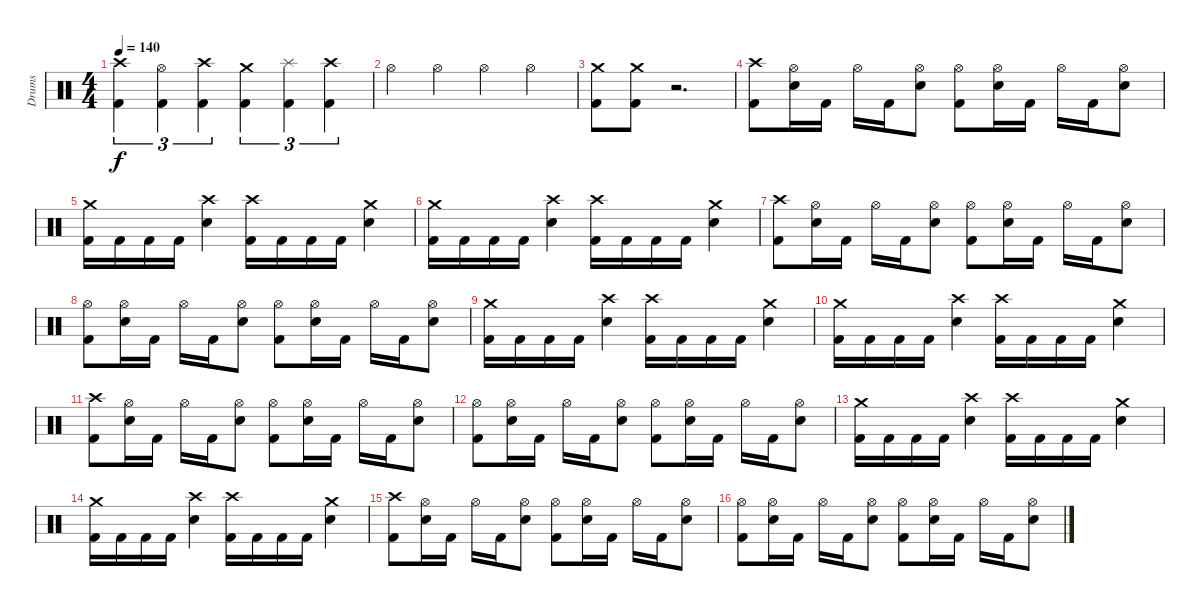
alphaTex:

\track ("Drums" "Drums") {instrument percussion}
\staff {score}
\articulation defaults
\ts (4 4)
\tempo 140
\clef neutral
\ks c
("Crash high (hit)" "Kick (hit) 2").4{tu (3 2) dy f} ("Hi-Hat (open)" "Kick (hit) 2").4{tu (3 2)} ("Crash high (hit)" "Kick (hit) 2").4{tu (3 2)} ("Crash medium (hit)" "Kick (hit) 2").4{tu (3 2)} ("Splash (hit)" "Kick (hit) 2").4{tu (3 2)} ("Crash high (hit)" "Kick (hit) 2").4{tu (3 2)} |
"Hi-Hat (open)".4 "Hi-Hat (open)".4 "Hi-Hat (open)".4 "Hi-Hat (open)".4 |
("Kick (hit) 2" "Crash medium (hit)").8 ("Kick (hit) 2" "Crash medium (hit)").8 r.2{d volume 0} |
("Crash high (hit)" "Kick (hit) 2").8{volume 10} ("Hi-Hat (open)" "Snare (hit) 2").16 "Kick (hit) 2".16 "Hi-Hat (open)".16 "Kick (hit) 2".16 ("Snare (hit) 2" "Hi-Hat (open)").8 ("Kick (hit) 2" "Hi-Hat (open)").8 ("Snare (hit) 2" "Hi-Hat (open)").16 "Kick (hit) 2".16 "Hi-Hat (open)".16 "Kick (hit) 2".16 ("Snare (hit) 2" "Hi-Hat (open)").8 |
("Kick (hit) 2" "Crash medium (hit)").16 "Kick (hit) 2".16 "Kick (hit) 2".16 "Kick (hit) 2".16 ("Crash high (hit)" "Snare (hit) 2").4 ("Kick (hit) 2" "Crash high (hit)").16 "Kick (hit) 2".16 "Kick (hit) 2".16 "Kick (hit) 2".16 ("Crash medium (hit)" "Snare (hit) 2").4 |
("Kick (hit) 2" "Crash medium (hit)").16 "Kick (hit) 2".16 "Kick (hit) 2".16 "Kick (hit) 2".16 ("Crash high (hit)" "Snare (hit) 2").4 ("Kick (hit) 2" "Crash high (hit)").16 "Kick (hit) 2".16 "Kick (hit) 2".16 "Kick (hit) 2".16 ("Crash medium (hit)" "Snare (hit) 2").4 |
("Kick (hit) 2" "Crash high (hit)").8 ("Snare (hit) 2" "Hi-Hat (open)").16 "Kick (hit) 2".16 "Hi-Hat (open)".16 "Kick (hit) 2".16 ("Hi-Hat (open)" "Snare (hit) 2").8 ("Hi-Hat (open)" "Kick (hit) 2").8 ("Snare (hit) 2" "Hi-Hat (open)").16 "Kick (hit) 2".16 "Hi-Hat (open)".16 "Kick (hit) 2".16 ("Hi-Hat (open)" "Snare (hit) 2").8 |
("Kick (hit) 2" "Hi-Hat (open)").8 ("Snare (hit) 2" "Hi-Hat (open)").16 "Kick (hit) 2".16 "Hi-Hat (open)".16 "Kick (hit) 2".16 ("Snare (hit) 2" "Hi-Hat (open)").8 ("Hi-Hat (open)" "Kick (hit) 2").8 ("Hi-Hat (open)" "Snare (hit) 2").16 "Kick (hit) 2".16 "Hi-Hat (open)".16 "Kick (hit) 2".16 ("Snare (hit) 2" "Hi-Hat (open)").8 |
("Kick (hit) 2" "Crash medium (hit)").16 "Kick (hit) 2".16 "Kick (hit) 2".16 "Kick (hit) 2".16 ("Crash high (hit)" "Snare (hit) 2").4 ("Kick (hit) 2" "Crash high (hit)").16 "Kick (hit) 2".16 "Kick (hit) 2".16 "Kick (hit) 2".16 ("Crash medium (hit)" "Snare (hit) 2").4 |
("Kick (hit) 2" "Crash medium (hit)").16 "Kick (hit) 2".16 "Kick (hit) 2".16 "Kick (hit) 2".16 ("Crash high (hit)" "Snare (hit) 2").4 ("Kick (hit) 2" "Crash high (hit)").16 "Kick (hit) 2".16 "Kick (hit) 2".16 "Kick (hit) 2".16 ("Crash medium (hit)" "Snare (hit) 2").4 |
("Kick (hit) 2" "Crash high (hit)").8 ("Snare (hit) 2" "Hi-Hat (open)").16 "Kick (hit) 2".16 "Hi-Hat (open)".16 "Kick (hit) 2".16 ("Hi-Hat (open)" "Snare (hit) 2").8 ("Hi-Hat (open)" "Kick (hit) 2").8 ("Snare (hit) 2" "Hi-Hat (open)").16 "Kick (hit) 2".16 "Hi-Hat (open)".16 "Kick (hit) 2".16 ("Hi-Hat (open)" "Snare (hit) 2").8 |
("Kick (hit) 2" "Hi-Hat (open)").8 ("Snare (hit) 2" "Hi-Hat (open)").16 "Kick (hit) 2".16 "Hi-Hat (open)".16 "Kick (hit) 2".16 ("Snare (hit) 2" "Hi-Hat (open)").8 ("Hi-Hat (open)" "Kick (hit) 2").8 ("Hi-Hat (open)" "Snare (hit) 2").16 "Kick (hit) 2".16 "Hi-Hat (open)".16 "Kick (hit) 2".16 ("Snare (hit) 2" "Hi-Hat (open)").8 |
("Kick (hit) 2" "Crash medium (hit)").16 "Kick (hit) 2".16 "Kick (hit) 2".16 "Kick (hit) 2".16 ("Crash high (hit)" "Snare (hit) 2").4 ("Kick (hit) 2" "Crash high (hit)").16 "Kick (hit) 2".16 "Kick (hit) 2".16 "Kick (hit) 2".16 ("Crash medium (hit)" "Snare (hit) 2").4 |
("Kick (hit) 2" "Crash medium (hit)").16 "Kick (hit) 2".16 "Kick (hit) 2".16 "Kick (hit) 2".16 ("Crash high (hit)" "Snare (hit) 2").4 ("Kick (hit) 2" "Crash high (hit)").16 "Kick (hit) 2".16 "Kick (hit) 2".16 "Kick (hit) 2".16 ("Crash medium (hit)" "Snare (hit) 2").4 |
("Kick (hit) 2" "Crash high (hit)").8 ("Snare (hit) 2" "Hi-Hat (open)").16 "Kick (hit) 2".16 "Hi-Hat (open)".16 "Kick (hit) 2".16 ("Hi-Hat (open)" "Snare (hit) 2").8 ("Hi-Hat (open)" "Kick (hit) 2").8 ("Snare (hit) 2" "Hi-Hat (open)").16 "Kick (hit) 2".16 "Hi-Hat (open)".16 "Kick (hit) 2".16 ("Hi-Hat (open)" "Snare (hit) 2").8 |
("Kick (hit) 2" "Hi-Hat (open)").8 ("Snare (hit) 2" "Hi-Hat (open)").16 "Kick (hit) 2".16 "Hi-Hat (open)".16 "Kick (hit) 2".16 ("Snare (hit) 2" "Hi-Hat (open)").8 ("Hi-Hat (open)" "Kick (hit) 2").8 ("Hi-Hat (open)" "Snare (hit) 2").16 "Kick (hit) 2".16 "Hi-Hat (open)".16 "Kick (hit) 2".16 ("Snare (hit) 2" "Hi-Hat (open)").8
